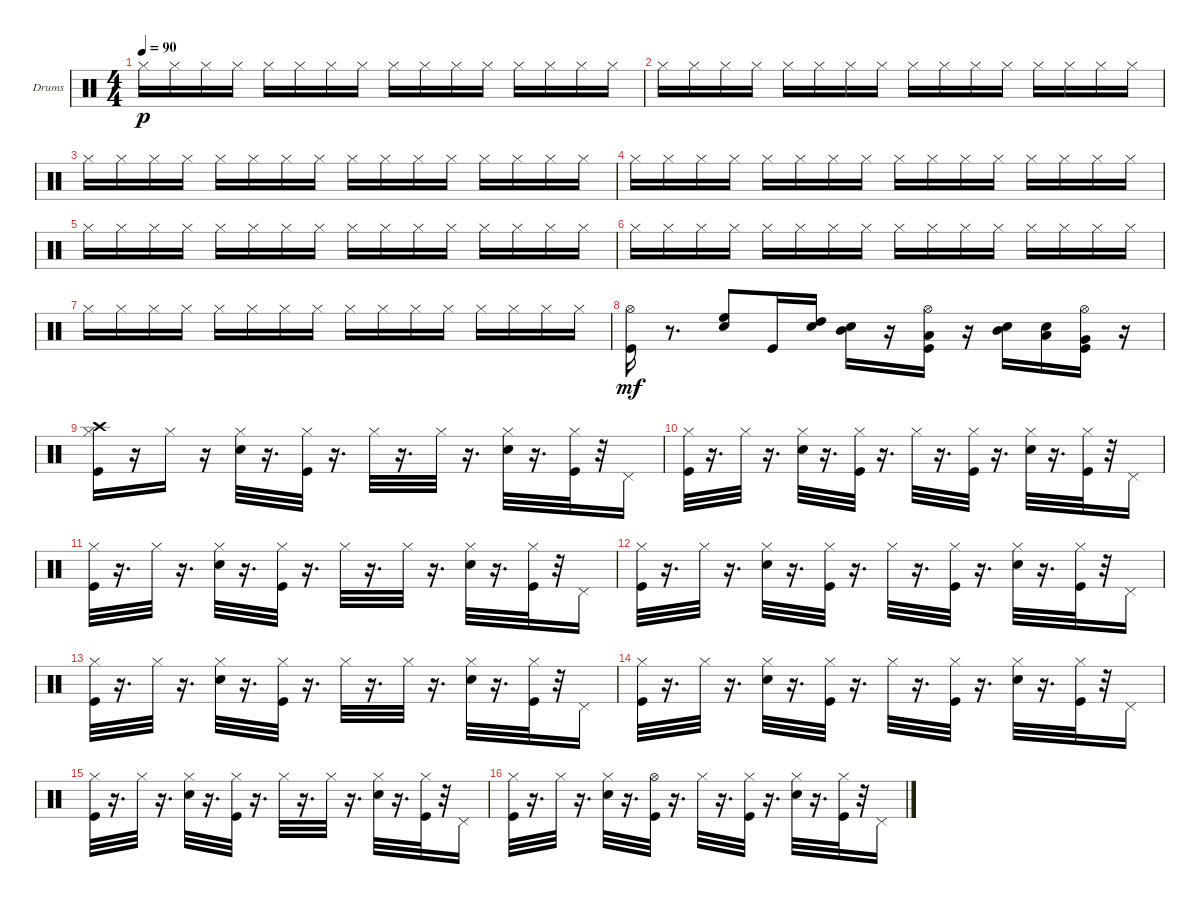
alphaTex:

\bracketExtendMode groupsimilarinstruments
\firstSystemTrackNameOrientation horizontal
\otherSystemsTrackNameOrientation horizontal
\track ("Drumkit" "Drums") {instrument percussion}
\staff {score}
\articulation defaults
\ts (4 4)
\beaming (8 2 2 2 2)
\tempo 90
\clef neutral
\ks c "Hi-Hat (closed)".16{dy p} "Hi-Hat (closed)".16 "Hi-Hat (closed)".16 "Hi-Hat (closed)".16 "Hi-Hat (closed)".16 "Hi-Hat (closed)".16 "Hi-Hat (closed)".16 "Hi-Hat (closed)".16 "Hi-Hat (closed)".16 "Hi-Hat (closed)".16 "Hi-Hat (closed)".16 "Hi-Hat (closed)".16 "Hi-Hat (closed)".16 "Hi-Hat (closed)".16 "Hi-Hat (closed)".16 "Hi-Hat (closed)".16
|
"Hi-Hat (closed)".16 "Hi-Hat (closed)".16 "Hi-Hat (closed)".16 "Hi-Hat (closed)".16 "Hi-Hat (closed)".16 "Hi-Hat (closed)".16 "Hi-Hat (closed)".16 "Hi-Hat (closed)".16 "Hi-Hat (closed)".16 "Hi-Hat (closed)".16 "Hi-Hat (closed)".16 "Hi-Hat (closed)".16 "Hi-Hat (closed)".16 "Hi-Hat (closed)".16 "Hi-Hat (closed)".16 "Hi-Hat (closed)".16 |
"Hi-Hat (closed)".16 "Hi-Hat (closed)".16 "Hi-Hat (closed)".16 "Hi-Hat (closed)".16 "Hi-Hat (closed)".16 "Hi-Hat (closed)".16 "Hi-Hat (closed)".16 "Hi-Hat (closed)".16 "Hi-Hat (closed)".16 "Hi-Hat (closed)".16 "Hi-Hat (closed)".16 "Hi-Hat (closed)".16 "Hi-Hat (closed)".16 "Hi-Hat (closed)".16 "Hi-Hat (closed)".16 "Hi-Hat (closed)".16 |
"Hi-Hat (closed)".16 "Hi-Hat (closed)".16 "Hi-Hat (closed)".16 "Hi-Hat (closed)".16 "Hi-Hat (closed)".16 "Hi-Hat (closed)".16 "Hi-Hat (closed)".16 "Hi-Hat (closed)".16 "Hi-Hat (closed)".16 "Hi-Hat (closed)".16 "Hi-Hat (closed)".16 "Hi-Hat (closed)".16 "Hi-Hat (closed)".16 "Hi-Hat (closed)".16 "Hi-Hat (closed)".16 "Hi-Hat (closed)".16 |
"Hi-Hat (closed)".16 "Hi-Hat (closed)".16 "Hi-Hat (closed)".16 "Hi-Hat (closed)".16 "Hi-Hat (closed)".16 "Hi-Hat (closed)".16 "Hi-Hat (closed)".16 "Hi-Hat (closed)".16 "Hi-Hat (closed)".16 "Hi-Hat (closed)".16 "Hi-Hat (closed)".16 "Hi-Hat (closed)".16 "Hi-Hat (closed)".16 "Hi-Hat (closed)".16 "Hi-Hat (closed)".16 "Hi-Hat (closed)".16 |
"Hi-Hat (closed)".16 "Hi-Hat (closed)".16 "Hi-Hat (closed)".16 "Hi-Hat (closed)".16 "Hi-Hat (closed)".16 "Hi-Hat (closed)".16 "Hi-Hat (closed)".16 "Hi-Hat (closed)".16 "Hi-Hat (closed)".16 "Hi-Hat (closed)".16 "Hi-Hat (closed)".16 "Hi-Hat (closed)".16 "Hi-Hat (closed)".16 "Hi-Hat (closed)".16 "Hi-Hat (closed)".16 "Hi-Hat (closed)".16 |
"Hi-Hat (closed)".16 "Hi-Hat (closed)".16 "Hi-Hat (closed)".16 "Hi-Hat (closed)".16 "Hi-Hat (closed)".16 "Hi-Hat (closed)".16 "Hi-Hat (closed)".16 "Hi-Hat (closed)".16 "Hi-Hat (closed)".16 "Hi-Hat (closed)".16 "Hi-Hat (closed)".16 "Hi-Hat (closed)".16 "Hi-Hat (closed)".16 "Hi-Hat (closed)".16 "Hi-Hat (closed)".16 "Hi-Hat (closed)".16 |
("Hi-Hat (open)" "Kick (hit)").16{dy mf} r.8{d} ("Snare (hit) 2" "High Floor Tom (hit)").8 "Kick (hit)".16 ("Snare (hit) 2" "High Tom (hit)").16 ("Snare (hit) 2" "Mid Tom (hit)").16 r.16 ("Low Tom (hit)" "Hi-Hat (open)" "Kick (hit)").16 r.16 ("Snare (hit) 2" "Mid Tom (hit)").16 ("Snare (hit) 2" "Low Tom (hit)").16 ("Very Low Tom (hit)" "Hi-Hat (open)" "Kick (hit)").16 r.16 |
("Crash high (hit)" "Hi-Hat (closed)" "Kick (hit)").16 r.16 "Hi-Hat (closed)".16 r.16 ("Snare (hit) 2" "Hi-Hat (closed)").32 r.16{d} ("Hi-Hat (closed)" "Kick (hit)").32 r.16{d} "Hi-Hat (closed)".32 r.16{d} "Hi-Hat (closed)".32 r.16{d} ("Snare (hit) 2" "Hi-Hat (closed)").32 r.16{d} ("Hi-Hat (closed)" "Kick (hit)").32 r.32 "Pedal Hi-Hat (hit)".16 |
("Kick (hit)" "Hi-Hat (closed)").32 r.16{d} "Hi-Hat (closed)".32 r.16{d} ("Snare (hit) 2" "Hi-Hat (closed)").32 r.16{d} ("Kick (hit)" "Hi-Hat (closed)").32 r.16{d} "Hi-Hat (closed)".32 r.16{d} ("Kick (hit)" "Hi-Hat (closed)").32 r.16{d} ("Snare (hit) 2" "Hi-Hat (closed)").32 r.16{d} ("Kick (hit)" "Hi-Hat (closed)").32 r.32 "Pedal Hi-Hat (hit)".16 |
("Kick (hit)" "Hi-Hat (closed)").32 r.16{d} "Hi-Hat (closed)".32 r.16{d} ("Snare (hit) 2" "Hi-Hat (closed)").32 r.16{d} ("Kick (hit)" "Hi-Hat (closed)").32 r.16{d} "Hi-Hat (closed)".32 r.16{d} "Hi-Hat (closed)".32 r.16{d} ("Snare (hit) 2" "Hi-Hat (closed)").32 r.16{d} ("Kick (hit)" "Hi-Hat (closed)").32 r.32 "Pedal Hi-Hat (hit)".16 |
("Kick (hit)" "Hi-Hat (closed)").32 r.16{d} "Hi-Hat (closed)".32 r.16{d} ("Snare (hit) 2" "Hi-Hat (closed)").32 r.16{d} ("Kick (hit)" "Hi-Hat (closed)").32 r.16{d} "Hi-Hat (closed)".32 r.16{d} ("Kick (hit)" "Hi-Hat (closed)").32 r.16{d} ("Snare (hit) 2" "Hi-Hat (closed)").32 r.16{d} ("Kick (hit)" "Hi-Hat (closed)").32 r.32 "Pedal Hi-Hat (hit)".16 |
("Kick (hit)" "Hi-Hat (closed)").32 r.16{d} "Hi-Hat (closed)".32 r.16{d} ("Snare (hit) 2" "Hi-Hat (closed)").32 r.16{d} ("Kick (hit)" "Hi-Hat (closed)").32 r.16{d} "Hi-Hat (closed)".32 r.16{d} "Hi-Hat (closed)".32 r.16{d} ("Snare (hit) 2" "Hi-Hat (closed)").32 r.16{d} ("Kick (hit)" "Hi-Hat (closed)").32 r.32 "Pedal Hi-Hat (hit)".16 |
("Kick (hit)" "Hi-Hat (closed)").32 r.16{d} "Hi-Hat (closed)".32 r.16{d} ("Snare (hit) 2" "Hi-Hat (closed)").32 r.16{d} ("Kick (hit)" "Hi-Hat (closed)").32 r.16{d} "Hi-Hat (closed)".32 r.16{d} ("Kick (hit)" "Hi-Hat (closed)").32 r.16{d} ("Snare (hit) 2" "Hi-Hat (closed)").32 r.16{d} ("Kick (hit)" "Hi-Hat (closed)").32 r.32 "Pedal Hi-Hat (hit)".16 |
("Kick (hit)" "Hi-Hat (closed)").32 r.16{d} "Hi-Hat (closed)".32 r.16{d} ("Snare (hit) 2" "Hi-Hat (closed)").32 r.16{d} ("Kick (hit)" "Hi-Hat (closed)").32 r.16{d} "Hi-Hat (closed)".32 r.16{d} "Hi-Hat (closed)".32 r.16{d} ("Snare (hit) 2" "Hi-Hat (closed)").32 r.16{d} ("Kick (hit)" "Hi-Hat (closed)").32 r.32 "Pedal Hi-Hat (hit)".16 |
("Kick (hit)" "Hi-Hat (closed)").32 r.16{d} "Hi-Hat (closed)".32 r.16{d} ("Snare (hit) 2" "Hi-Hat (closed)").32 r.16{d} ("Kick (hit)" "Hi-Hat (open)").32 r.16{d} "Hi-Hat (closed)".32 r.16{d} ("Kick (hit)" "Hi-Hat (closed)").32 r.16{d} ("Snare (hit) 2" "Hi-Hat (closed)").32 r.16{d} ("Kick (hit)" "Hi-Hat (closed)").32 r.32 "Pedal Hi-Hat (hit)".16
